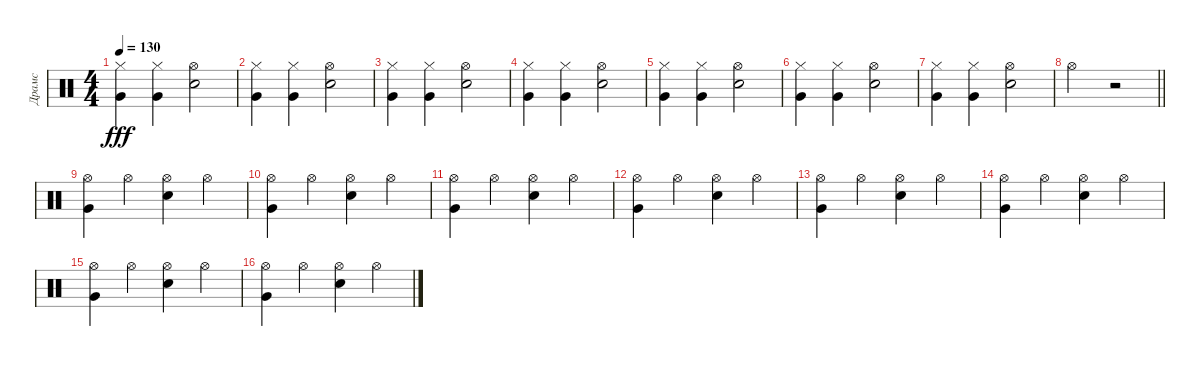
\track ("Драмс" "Драмс") {instrument percussion}
\staff {score}
\articulation defaults
\ts (4 4)
\tempo 130
\clef neutral
\ks c
("Hi-Hat (closed)" "Very Low Tom (hit)").4{dy fff} ("Very Low Tom (hit)" "Hi-Hat (closed)").4 ("Snare (hit) 2" "Hi-Hat (open)").2 |
("Hi-Hat (closed)" "Very Low Tom (hit)").4 ("Very Low Tom (hit)" "Hi-Hat (closed)").4 ("Snare (hit) 2" "Hi-Hat (open)").2 |
("Hi-Hat (closed)" "Very Low Tom (hit)").4 ("Very Low Tom (hit)" "Hi-Hat (closed)").4 ("Snare (hit) 2" "Hi-Hat (open)").2 |
("Hi-Hat (closed)" "Very Low Tom (hit)").4 ("Very Low Tom (hit)" "Hi-Hat (closed)").4 ("Snare (hit) 2" "Hi-Hat (open)").2 |
("Hi-Hat (closed)" "Very Low Tom (hit)").4 ("Very Low Tom (hit)" "Hi-Hat (closed)").4 ("Snare (hit) 2" "Hi-Hat (open)").2 |
("Hi-Hat (closed)" "Very Low Tom (hit)").4 ("Very Low Tom (hit)" "Hi-Hat (closed)").4 ("Snare (hit) 2" "Hi-Hat (open)").2 |
("Hi-Hat (closed)" "Very Low Tom (hit)").4 ("Very Low Tom (hit)" "Hi-Hat (closed)").4 ("Snare (hit) 2" "Hi-Hat (open)").2 |
\barLineRight lightlight "Hi-Hat (open)".2
r.2 |
("Hi-Hat (open)" "Very Low Tom (hit)").4 "Hi-Hat (open)".4 ("Hi-Hat (open)" "Snare (hit) 2").4 "Hi-Hat (open)".4 |
("Hi-Hat (open)" "Very Low Tom (hit)").4 "Hi-Hat (open)".4 ("Hi-Hat (open)" "Snare (hit) 2").4 "Hi-Hat (open)".4 |
("Hi-Hat (open)" "Very Low Tom (hit)").4 "Hi-Hat (open)".4 ("Hi-Hat (open)" "Snare (hit) 2").4 "Hi-Hat (open)".4 |
("Hi-Hat (open)" "Very Low Tom (hit)").4 "Hi-Hat (open)".4 ("Hi-Hat (open)" "Snare (hit) 2").4 "Hi-Hat (open)".4 |
("Hi-Hat (open)" "Very Low Tom (hit)").4 "Hi-Hat (open)".4 ("Hi-Hat (open)" "Snare (hit) 2").4 "Hi-Hat (open)".4 |
("Hi-Hat (open)" "Very Low Tom (hit)").4 "Hi-Hat (open)".4 ("Hi-Hat (open)" "Snare (hit) 2").4 "Hi-Hat (open)".4 |
("Hi-Hat (open)" "Very Low Tom (hit)").4 "Hi-Hat (open)".4 ("Hi-Hat (open)" "Snare (hit) 2").4 "Hi-Hat (open)".4 |
("Hi-Hat (open)" "Very Low Tom (hit)").4 "Hi-Hat (open)".4 ("Hi-Hat (open)" "Snare (hit) 2").4 "Hi-Hat (open)".4
